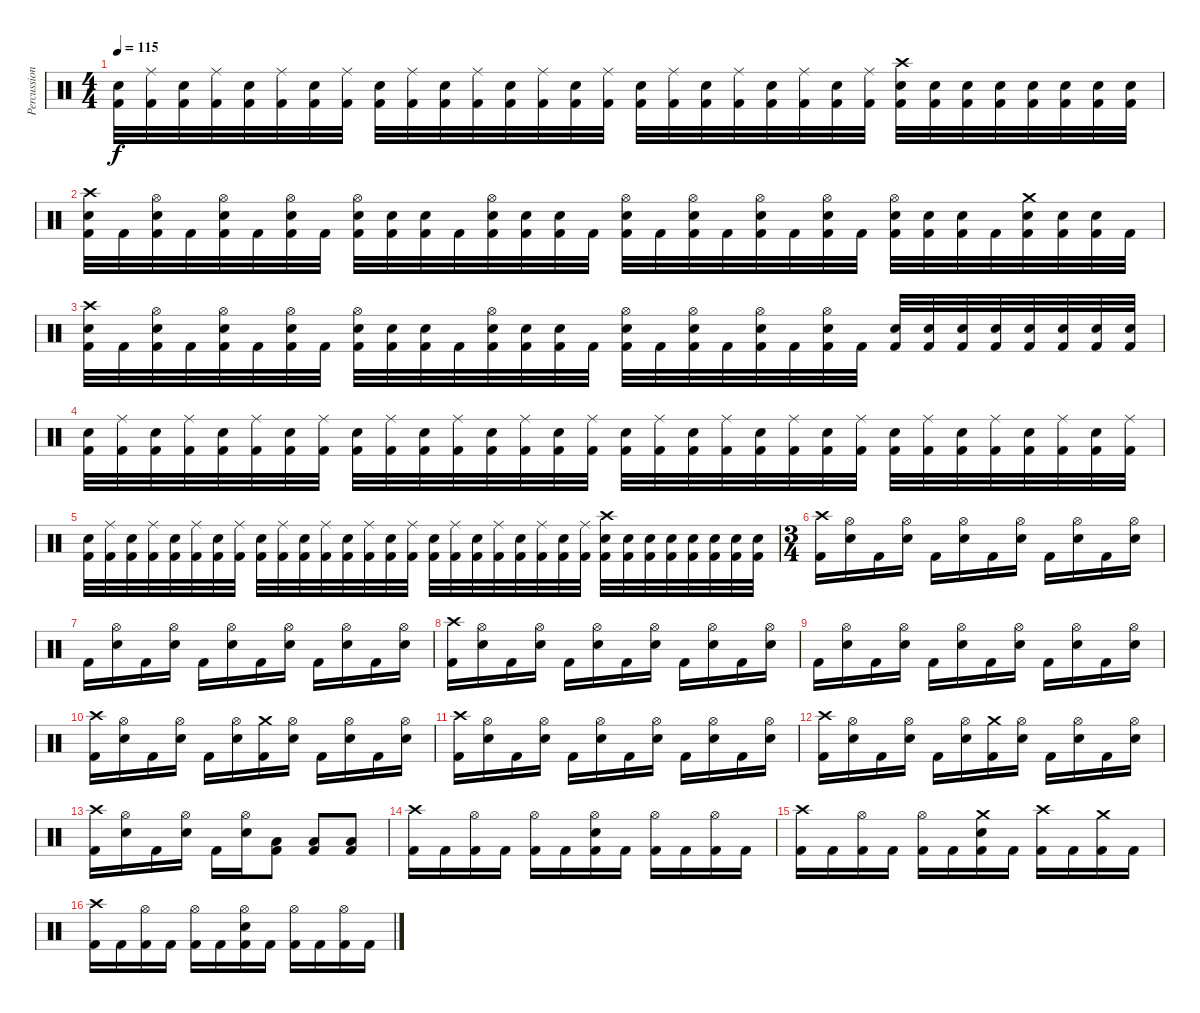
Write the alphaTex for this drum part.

\track ("Percussion" "Percussion") {instrument percussion}
\staff {score}
\articulation defaults
\ts (4 4)
\tempo 115
\clef neutral
\ks c
("Electric Snare (hit)" "Kick (hit) 2").32{dy f} ("Ride (middle)" "Kick (hit) 2").32 ("Electric Snare (hit)" "Kick (hit) 2").32 ("Ride (middle)" "Kick (hit) 2").32 ("Electric Snare (hit)" "Kick (hit) 2").32 ("Ride (middle)" "Kick (hit) 2").32 ("Electric Snare (hit)" "Kick (hit) 2").32 ("Ride (middle)" "Kick (hit) 2").32 ("Electric Snare (hit)" "Kick (hit) 2").32 ("Ride (middle)" "Kick (hit) 2").32 ("Electric Snare (hit)" "Kick (hit) 2").32 ("Ride (middle)" "Kick (hit) 2").32 ("Electric Snare (hit)" "Kick (hit) 2").32 ("Ride (middle)" "Kick (hit) 2").32 ("Electric Snare (hit)" "Kick (hit) 2").32 ("Ride (middle)" "Kick (hit) 2").32 ("Electric Snare (hit)" "Kick (hit) 2").32 ("Ride (middle)" "Kick (hit) 2").32 ("Electric Snare (hit)" "Kick (hit) 2").32 ("Ride (middle)" "Kick (hit) 2").32 ("Electric Snare (hit)" "Kick (hit) 2").32 ("Ride (middle)" "Kick (hit) 2").32 ("Electric Snare (hit)" "Kick (hit) 2").32 ("Ride (middle)" "Kick (hit) 2").32 ("Crash high (hit)" "Electric Snare (hit)" "Kick (hit) 2").32 ("Electric Snare (hit)" "Kick (hit) 2").32 ("Electric Snare (hit)" "Kick (hit) 2").32 ("Electric Snare (hit)" "Kick (hit) 2").32 ("Electric Snare (hit)" "Kick (hit) 2").32 ("Electric Snare (hit)" "Kick (hit) 2").32 ("Electric Snare (hit)" "Kick (hit) 2").32 ("Electric Snare (hit)" "Kick (hit) 2").32 |
("Crash high (hit)" "Electric Snare (hit)" "Kick (hit) 2").32 "Kick (hit) 2".32 ("Hi-Hat (open)" "Electric Snare (hit)" "Kick (hit) 2").32 "Kick (hit) 2".32 ("Hi-Hat (open)" "Electric Snare (hit)" "Kick (hit) 2").32 "Kick (hit) 2".32 ("Hi-Hat (open)" "Electric Snare (hit)" "Kick (hit) 2").32 "Kick (hit) 2".32 ("Hi-Hat (open)" "Electric Snare (hit)" "Kick (hit) 2").32 ("Electric Snare (hit)" "Kick (hit) 2").32 ("Electric Snare (hit)" "Kick (hit) 2").32 "Kick (hit) 2".32 ("Hi-Hat (open)" "Electric Snare (hit)" "Kick (hit) 2").32 ("Electric Snare (hit)" "Kick (hit) 2").32 ("Electric Snare (hit)" "Kick (hit) 2").32 "Kick (hit) 2".32 ("Hi-Hat (open)" "Electric Snare (hit)" "Kick (hit) 2").32 "Kick (hit) 2".32 ("Hi-Hat (open)" "Electric Snare (hit)" "Kick (hit) 2").32 "Kick (hit) 2".32 ("Hi-Hat (open)" "Electric Snare (hit)" "Kick (hit) 2").32 "Kick (hit) 2".32 ("Hi-Hat (open)" "Electric Snare (hit)" "Kick (hit) 2").32 "Kick (hit) 2".32 ("Hi-Hat (open)" "Electric Snare (hit)" "Kick (hit) 2").32 ("Electric Snare (hit)" "Kick (hit) 2").32 ("Electric Snare (hit)" "Kick (hit) 2").32 "Kick (hit) 2".32 ("Crash medium (hit)" "Electric Snare (hit)" "Kick (hit) 2").32 ("Electric Snare (hit)" "Kick (hit) 2").32 ("Electric Snare (hit)" "Kick (hit) 2").32 "Kick (hit) 2".32 |
("Crash high (hit)" "Electric Snare (hit)" "Kick (hit) 2").32 "Kick (hit) 2".32 ("Hi-Hat (open)" "Electric Snare (hit)" "Kick (hit) 2").32 "Kick (hit) 2".32 ("Hi-Hat (open)" "Electric Snare (hit)" "Kick (hit) 2").32 "Kick (hit) 2".32 ("Hi-Hat (open)" "Electric Snare (hit)" "Kick (hit) 2").32 "Kick (hit) 2".32 ("Hi-Hat (open)" "Electric Snare (hit)" "Kick (hit) 2").32 ("Electric Snare (hit)" "Kick (hit) 2").32 ("Electric Snare (hit)" "Kick (hit) 2").32 "Kick (hit) 2".32 ("Hi-Hat (open)" "Electric Snare (hit)" "Kick (hit) 2").32 ("Electric Snare (hit)" "Kick (hit) 2").32 ("Electric Snare (hit)" "Kick (hit) 2").32 "Kick (hit) 2".32 ("Hi-Hat (open)" "Electric Snare (hit)" "Kick (hit) 2").32 "Kick (hit) 2".32 ("Hi-Hat (open)" "Electric Snare (hit)" "Kick (hit) 2").32 "Kick (hit) 2".32 ("Hi-Hat (open)" "Electric Snare (hit)" "Kick (hit) 2").32 "Kick (hit) 2".32 ("Hi-Hat (open)" "Electric Snare (hit)" "Kick (hit) 2").32 "Kick (hit) 2".32 ("Electric Snare (hit)" "Kick (hit) 2").32 ("Electric Snare (hit)" "Kick (hit) 2").32 ("Electric Snare (hit)" "Kick (hit) 2").32 ("Electric Snare (hit)" "Kick (hit) 2").32 ("Electric Snare (hit)" "Kick (hit) 2").32 ("Electric Snare (hit)" "Kick (hit) 2").32 ("Electric Snare (hit)" "Kick (hit) 2").32 ("Electric Snare (hit)" "Kick (hit) 2").32 |
("Electric Snare (hit)" "Kick (hit) 2").32 ("Ride (middle)" "Kick (hit) 2").32 ("Electric Snare (hit)" "Kick (hit) 2").32 ("Ride (middle)" "Kick (hit) 2").32 ("Electric Snare (hit)" "Kick (hit) 2").32 ("Ride (middle)" "Kick (hit) 2").32 ("Electric Snare (hit)" "Kick (hit) 2").32 ("Ride (middle)" "Kick (hit) 2").32 ("Electric Snare (hit)" "Kick (hit) 2").32 ("Ride (middle)" "Kick (hit) 2").32 ("Electric Snare (hit)" "Kick (hit) 2").32 ("Ride (middle)" "Kick (hit) 2").32 ("Electric Snare (hit)" "Kick (hit) 2").32 ("Ride (middle)" "Kick (hit) 2").32 ("Electric Snare (hit)" "Kick (hit) 2").32 ("Ride (middle)" "Kick (hit) 2").32 ("Electric Snare (hit)" "Kick (hit) 2").32 ("Ride (middle)" "Kick (hit) 2").32 ("Electric Snare (hit)" "Kick (hit) 2").32 ("Ride (middle)" "Kick (hit) 2").32 ("Electric Snare (hit)" "Kick (hit) 2").32 ("Ride (middle)" "Kick (hit) 2").32 ("Electric Snare (hit)" "Kick (hit) 2").32 ("Ride (middle)" "Kick (hit) 2").32 ("Electric Snare (hit)" "Kick (hit) 2").32 ("Ride (middle)" "Kick (hit) 2").32 ("Electric Snare (hit)" "Kick (hit) 2").32 ("Ride (middle)" "Kick (hit) 2").32 ("Electric Snare (hit)" "Kick (hit) 2").32 ("Ride (middle)" "Kick (hit) 2").32 ("Electric Snare (hit)" "Kick (hit) 2").32 ("Ride (middle)" "Kick (hit) 2").32 |
("Electric Snare (hit)" "Kick (hit) 2").32 ("Ride (middle)" "Kick (hit) 2").32 ("Electric Snare (hit)" "Kick (hit) 2").32 ("Ride (middle)" "Kick (hit) 2").32 ("Electric Snare (hit)" "Kick (hit) 2").32 ("Ride (middle)" "Kick (hit) 2").32 ("Electric Snare (hit)" "Kick (hit) 2").32 ("Ride (middle)" "Kick (hit) 2").32 ("Electric Snare (hit)" "Kick (hit) 2").32 ("Ride (middle)" "Kick (hit) 2").32 ("Electric Snare (hit)" "Kick (hit) 2").32 ("Ride (middle)" "Kick (hit) 2").32 ("Electric Snare (hit)" "Kick (hit) 2").32 ("Ride (middle)" "Kick (hit) 2").32 ("Electric Snare (hit)" "Kick (hit) 2").32 ("Ride (middle)" "Kick (hit) 2").32 ("Electric Snare (hit)" "Kick (hit) 2").32 ("Ride (middle)" "Kick (hit) 2").32 ("Electric Snare (hit)" "Kick (hit) 2").32 ("Ride (middle)" "Kick (hit) 2").32 ("Electric Snare (hit)" "Kick (hit) 2").32 ("Ride (middle)" "Kick (hit) 2").32 ("Electric Snare (hit)" "Kick (hit) 2").32 ("Ride (middle)" "Kick (hit) 2").32 ("Crash high (hit)" "Electric Snare (hit)" "Kick (hit) 2").32 ("Electric Snare (hit)" "Kick (hit) 2").32 ("Electric Snare (hit)" "Kick (hit) 2").32 ("Electric Snare (hit)" "Kick (hit) 2").32 ("Electric Snare (hit)" "Kick (hit) 2").32 ("Electric Snare (hit)" "Kick (hit) 2").32 ("Electric Snare (hit)" "Kick (hit) 2").32 ("Electric Snare (hit)" "Kick (hit) 2").32 |
\ts (3 4)
("Crash high (hit)" "Kick (hit) 2").16 ("Hi-Hat (open)" "Electric Snare (hit)").16 "Kick (hit) 2".16 ("Hi-Hat (open)" "Electric Snare (hit)").16 "Kick (hit) 2".16 ("Hi-Hat (open)" "Electric Snare (hit)").16 "Kick (hit) 2".16 ("Hi-Hat (open)" "Electric Snare (hit)").16 "Kick (hit) 2".16 ("Hi-Hat (open)" "Electric Snare (hit)").16 "Kick (hit) 2".16 ("Hi-Hat (open)" "Electric Snare (hit)").16 |
"Kick (hit) 2".16 ("Hi-Hat (open)" "Electric Snare (hit)").16 "Kick (hit) 2".16 ("Hi-Hat (open)" "Electric Snare (hit)").16 "Kick (hit) 2".16 ("Hi-Hat (open)" "Electric Snare (hit)").16 "Kick (hit) 2".16 ("Hi-Hat (open)" "Electric Snare (hit)").16 "Kick (hit) 2".16 ("Hi-Hat (open)" "Electric Snare (hit)").16 "Kick (hit) 2".16 ("Hi-Hat (open)" "Electric Snare (hit)").16 |
("Crash high (hit)" "Kick (hit) 2").16 ("Hi-Hat (open)" "Electric Snare (hit)").16 "Kick (hit) 2".16 ("Hi-Hat (open)" "Electric Snare (hit)").16 "Kick (hit) 2".16 ("Hi-Hat (open)" "Electric Snare (hit)").16 "Kick (hit) 2".16 ("Hi-Hat (open)" "Electric Snare (hit)").16 "Kick (hit) 2".16 ("Hi-Hat (open)" "Electric Snare (hit)").16 "Kick (hit) 2".16 ("Hi-Hat (open)" "Electric Snare (hit)").16 |
"Kick (hit) 2".16 ("Hi-Hat (open)" "Electric Snare (hit)").16 "Kick (hit) 2".16 ("Hi-Hat (open)" "Electric Snare (hit)").16 "Kick (hit) 2".16 ("Hi-Hat (open)" "Electric Snare (hit)").16 "Kick (hit) 2".16 ("Hi-Hat (open)" "Electric Snare (hit)").16 "Kick (hit) 2".16 ("Hi-Hat (open)" "Electric Snare (hit)").16 "Kick (hit) 2".16 ("Hi-Hat (open)" "Electric Snare (hit)").16 |
("Crash high (hit)" "Kick (hit) 2").16 ("Hi-Hat (open)" "Electric Snare (hit)").16 "Kick (hit) 2".16 ("Hi-Hat (open)" "Electric Snare (hit)").16 "Kick (hit) 2".16 ("Hi-Hat (open)" "Electric Snare (hit)").16 ("Crash medium (hit)" "Kick (hit) 2").16 ("Hi-Hat (open)" "Electric Snare (hit)").16 "Kick (hit) 2".16 ("Hi-Hat (open)" "Electric Snare (hit)").16 "Kick (hit) 2".16 ("Hi-Hat (open)" "Electric Snare (hit)").16 |
("Crash high (hit)" "Kick (hit) 2").16 ("Hi-Hat (open)" "Electric Snare (hit)").16 "Kick (hit) 2".16 ("Hi-Hat (open)" "Electric Snare (hit)").16 "Kick (hit) 2".16 ("Hi-Hat (open)" "Electric Snare (hit)").16 "Kick (hit) 2".16 ("Hi-Hat (open)" "Electric Snare (hit)").16 "Kick (hit) 2".16 ("Hi-Hat (open)" "Electric Snare (hit)").16 "Kick (hit) 2".16 ("Hi-Hat (open)" "Electric Snare (hit)").16 |
("Crash high (hit)" "Kick (hit) 2").16 ("Hi-Hat (open)" "Electric Snare (hit)").16 "Kick (hit) 2".16 ("Hi-Hat (open)" "Electric Snare (hit)").16 "Kick (hit) 2".16 ("Hi-Hat (open)" "Electric Snare (hit)").16 ("Crash medium (hit)" "Kick (hit) 2").16 ("Hi-Hat (open)" "Electric Snare (hit)").16 "Kick (hit) 2".16 ("Hi-Hat (open)" "Electric Snare (hit)").16 "Kick (hit) 2".16 ("Hi-Hat (open)" "Electric Snare (hit)").16 |
("Crash high (hit)" "Kick (hit) 2").16 ("Hi-Hat (open)" "Electric Snare (hit)").16 "Kick (hit) 2".16 ("Hi-Hat (open)" "Electric Snare (hit)").16 "Kick (hit) 2".16 ("Hi-Hat (open)" "Electric Snare (hit)").16 ("Low Tom (hit)" "Kick (hit) 2").8 ("Low Tom (hit)" "Kick (hit) 2").8 ("Low Tom (hit)" "Kick (hit) 2").8 |
("Crash high (hit)" "Kick (hit) 2").16 "Kick (hit) 2".16 ("Hi-Hat (open)" "Kick (hit) 2").16 "Kick (hit) 2".16 ("Hi-Hat (open)" "Kick (hit) 2").16 "Kick (hit) 2".16 ("Hi-Hat (open)" "Electric Snare (hit)" "Kick (hit) 2").16 "Kick (hit) 2".16 ("Hi-Hat (open)" "Kick (hit) 2").16 "Kick (hit) 2".16 ("Hi-Hat (open)" "Kick (hit) 2").16 "Kick (hit) 2".16 |
("Crash high (hit)" "Kick (hit) 2").16 "Kick (hit) 2".16 ("Hi-Hat (open)" "Kick (hit) 2").16 "Kick (hit) 2".16 ("Hi-Hat (open)" "Kick (hit) 2").16 "Kick (hit) 2".16 ("Crash medium (hit)" "Electric Snare (hit)" "Kick (hit) 2").16 "Kick (hit) 2".16 ("Crash high (hit)" "Kick (hit) 2").16 "Kick (hit) 2".16 ("Crash medium (hit)" "Kick (hit) 2").16 "Kick (hit) 2".16 |
("Crash high (hit)" "Kick (hit) 2").16 "Kick (hit) 2".16 ("Hi-Hat (open)" "Kick (hit) 2").16 "Kick (hit) 2".16 ("Hi-Hat (open)" "Kick (hit) 2").16 "Kick (hit) 2".16 ("Hi-Hat (open)" "Electric Snare (hit)" "Kick (hit) 2").16 "Kick (hit) 2".16 ("Hi-Hat (open)" "Kick (hit) 2").16 "Kick (hit) 2".16 ("Hi-Hat (open)" "Kick (hit) 2").16 "Kick (hit) 2".16
